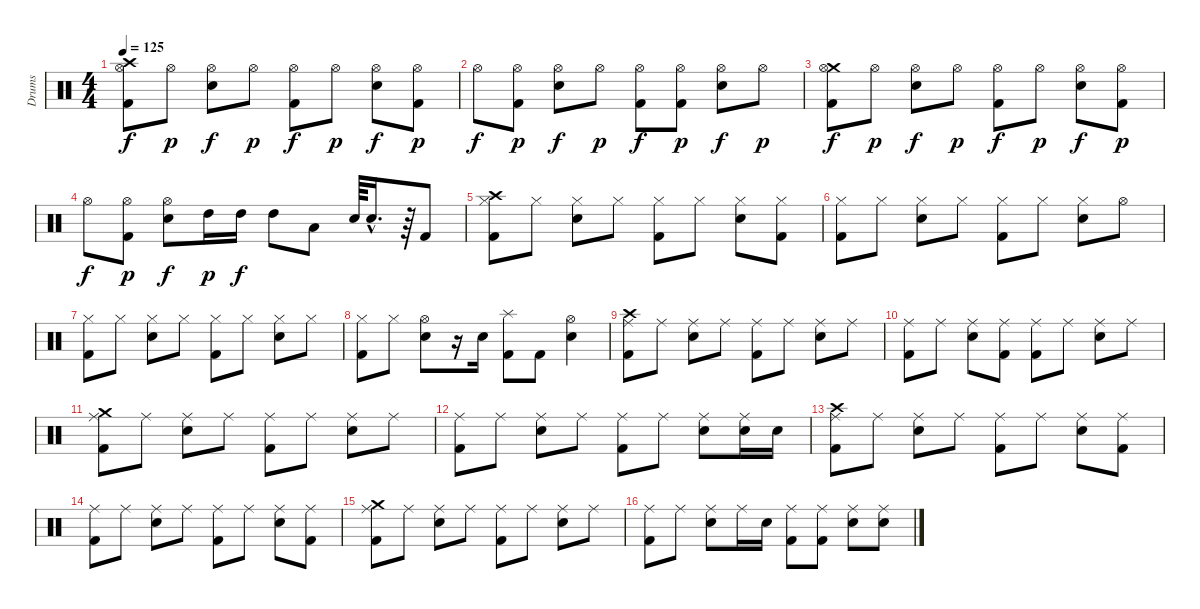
\track ("Drums" "Drums") {instrument percussion}
\staff {score}
\articulation defaults
\ts (4 4)
\tempo 125
\clef neutral
\ks c
("Crash high (hit)" "Hi-Hat (open)" "Kick (hit) 2").8{dy f} "Hi-Hat (open)".8{dy p} ("Hi-Hat (open)" "Electric Snare (hit)").8{dy f} "Hi-Hat (open)".8{dy p} ("Hi-Hat (open)" "Kick (hit) 2").8{dy f} "Hi-Hat (open)".8{dy p} ("Hi-Hat (open)" "Electric Snare (hit)").8{dy f} ("Hi-Hat (open)" "Kick (hit) 2").8{dy p} |
"Hi-Hat (open)".8{dy f} ("Hi-Hat (open)" "Kick (hit) 2").8{dy p} ("Hi-Hat (open)" "Electric Snare (hit)").8{dy f} "Hi-Hat (open)".8{dy p} ("Hi-Hat (open)" "Kick (hit) 2").8{dy f} ("Hi-Hat (open)" "Kick (hit) 2").8{dy p} ("Hi-Hat (open)" "Electric Snare (hit)").8{dy f} "Hi-Hat (open)".8{dy p} |
("Crash medium (hit)" "Hi-Hat (open)" "Kick (hit) 2").8{dy f} "Hi-Hat (open)".8{dy p} ("Hi-Hat (open)" "Electric Snare (hit)").8{dy f} "Hi-Hat (open)".8{dy p} ("Hi-Hat (open)" "Kick (hit) 2").8{dy f} "Hi-Hat (open)".8{dy p} ("Hi-Hat (open)" "Electric Snare (hit)").8{dy f} ("Hi-Hat (open)" "Kick (hit) 2").8{dy p} |
"Hi-Hat (open)".8{dy f} ("Hi-Hat (open)" "Kick (hit) 2").8{dy p} ("Hi-Hat (open)" "Electric Snare (hit)").8{dy f} "High Tom (hit)".16{dy p} "High Tom (hit)".16{dy f} "High Tom (hit)".8 "Low Tom (hit)".8 "Electric Snare (hit)".64 "Electric Snare (hit)"{hac}.16{d} r.64 "Kick (hit) 2".8 |
("Crash high (hit)" "Hi-Hat (closed)" "Kick (hit) 2").8 "Hi-Hat (closed)".8 ("Hi-Hat (closed)" "Electric Snare (hit)").8 "Hi-Hat (closed)".8 ("Hi-Hat (closed)" "Kick (hit) 2").8 "Hi-Hat (closed)".8 ("Hi-Hat (closed)" "Electric Snare (hit)").8 ("Hi-Hat (closed)" "Kick (hit) 2").8 |
("Hi-Hat (closed)" "Kick (hit) 2").8 "Hi-Hat (closed)".8 ("Hi-Hat (closed)" "Electric Snare (hit)").8 "Hi-Hat (closed)".8 ("Hi-Hat (closed)" "Kick (hit) 2").8 "Hi-Hat (closed)".8 ("Hi-Hat (closed)" "Electric Snare (hit)").8 "Hi-Hat (open)".8 |
("Hi-Hat (closed)" "Kick (hit) 2").8 "Hi-Hat (closed)".8 ("Hi-Hat (closed)" "Electric Snare (hit)").8 "Hi-Hat (closed)".8 ("Hi-Hat (closed)" "Kick (hit) 2").8 "Hi-Hat (closed)".8 ("Hi-Hat (closed)" "Electric Snare (hit)").8 "Hi-Hat (closed)".8 |
("Hi-Hat (closed)" "Kick (hit) 2").8 "Hi-Hat (closed)".8 ("Hi-Hat (open)" "Electric Snare (hit)").8 r.16 "Electric Snare (hit)".16 ("Splash (hit)" "Kick (hit) 2").8 "Kick (hit) 2".8 ("Hi-Hat (open)" "Electric Snare (hit)").4 |
("Crash high (hit)" "Ride (middle)" "Kick (hit) 2").8 "Ride (middle)".8 ("Ride (middle)" "Electric Snare (hit)").8 "Ride (middle)".8 ("Ride (middle)" "Kick (hit) 2").8 "Ride (middle)".8 ("Ride (middle)" "Electric Snare (hit)").8 "Ride (middle)".8 |
("Ride (middle)" "Kick (hit) 2").8 "Ride (middle)".8 ("Ride (middle)" "Electric Snare (hit)").8 ("Ride (middle)" "Kick (hit) 2").8 ("Ride (middle)" "Kick (hit) 2").8 "Ride (middle)".8 ("Ride (middle)" "Electric Snare (hit)").8 "Ride (middle)".8 |
("Crash medium (hit)" "Ride (middle)" "Kick (hit) 2").8 "Ride (middle)".8 ("Ride (middle)" "Electric Snare (hit)").8 "Ride (middle)".8 ("Ride (middle)" "Kick (hit) 2").8 "Ride (middle)".8 ("Ride (middle)" "Electric Snare (hit)").8 "Ride (middle)".8 |
("Ride (middle)" "Kick (hit) 2").8 "Ride (middle)".8 ("Ride (middle)" "Electric Snare (hit)").8 "Ride (middle)".8 ("Ride (middle)" "Kick (hit) 2").8 "Ride (middle)".8 ("Ride (middle)" "Electric Snare (hit)").8 ("Ride (middle)" "Electric Snare (hit)").16 "Electric Snare (hit)".16 |
("Crash high (hit)" "Ride (middle)" "Kick (hit) 2").8 "Ride (middle)".8 ("Ride (middle)" "Electric Snare (hit)").8 "Ride (middle)".8 ("Ride (middle)" "Kick (hit) 2").8 "Ride (middle)".8 ("Ride (middle)" "Electric Snare (hit)").8 ("Ride (middle)" "Kick (hit) 2").8 |
("Ride (middle)" "Kick (hit) 2").8 "Ride (middle)".8 ("Ride (middle)" "Electric Snare (hit)").8 "Ride (middle)".8 ("Ride (middle)" "Kick (hit) 2").8 "Ride (middle)".8 ("Ride (middle)" "Electric Snare (hit)").8 ("Ride (middle)" "Kick (hit) 2").8 |
("Crash medium (hit)" "Ride (middle)" "Kick (hit) 2").8 "Ride (middle)".8 ("Ride (middle)" "Electric Snare (hit)").8 "Ride (middle)".8 ("Ride (middle)" "Kick (hit) 2").8 "Ride (middle)".8 ("Ride (middle)" "Electric Snare (hit)").8 "Ride (middle)".8 |
("Ride (middle)" "Kick (hit) 2").8 "Ride (middle)".8 ("Ride (middle)" "Electric Snare (hit)").8 "Ride (middle)".16 "Electric Snare (hit)".16 ("Ride (middle)" "Kick (hit) 2").8 ("Ride (middle)" "Kick (hit) 2").8 ("Ride (middle)" "Electric Snare (hit)").8 ("Ride (middle)" "Electric Snare (hit)").8
